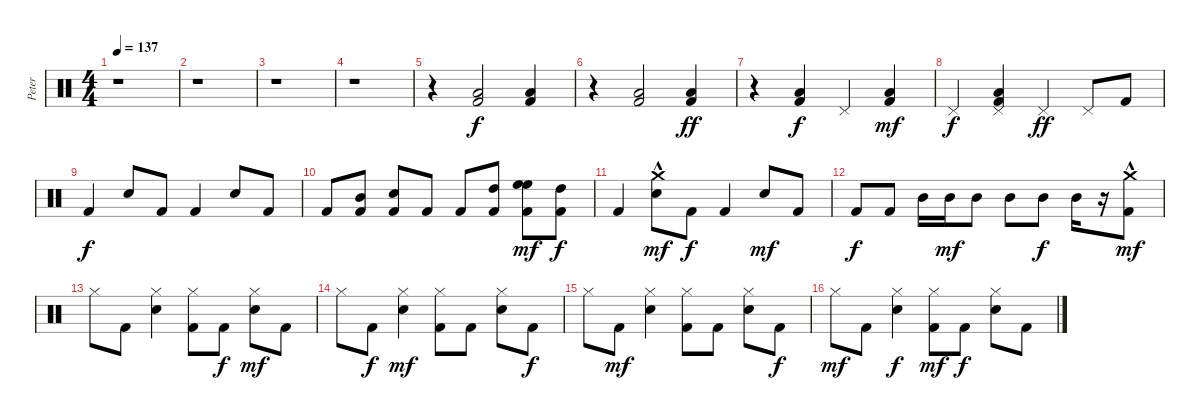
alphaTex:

\track ("Peter" "Peter") {instrument percussion}
\staff {score}
\articulation defaults
\ts (4 4)
\tempo 137
\clef neutral
\ks c
r.1{dy f} |
r.1 |
r.1 |
r.1 |
r.4 ("Low Floor Tom (hit)" "Kick (hit) 2").2 ("Low Floor Tom (hit)" "Kick (hit) 2").4 |
r.4 ("Low Floor Tom (hit)" "Kick (hit) 2").2 ("Low Floor Tom (hit)" "Kick (hit) 2").4{dy ff} |
r.4 ("Low Floor Tom (hit)" "Kick (hit) 2").4{dy f} "Pedal Hi-Hat (hit)".4 ("Low Floor Tom (hit)" "Kick (hit) 2").4{dy mf} |
"Pedal Hi-Hat (hit)".4{dy f} ("Pedal Hi-Hat (hit)" "Low Floor Tom (hit)" "Kick (hit) 2").4 "Pedal Hi-Hat (hit)".4{dy ff} "Pedal Hi-Hat (hit)".8 "Kick (hit) 2".8 |
"Kick (hit) 2".4{dy f} "Electric Snare (hit)".8 "Kick (hit) 2".8 "Kick (hit) 2".4 "Electric Snare (hit)".8 "Kick (hit) 2".8 |
"Kick (hit) 2".8 ("Mid Tom (hit)" "Kick (hit) 2").8 ("Electric Snare (hit)" "Kick (hit) 2").8 "Kick (hit) 2".8 "Kick (hit) 2".8 ("High Tom (hit)" "Kick (hit) 2").8 ("High Floor Tom (hit)" "High Floor Tom (hit)" "Kick (hit) 2").8{dy mf} ("High Tom (hit)" "Kick (hit) 2").8{dy f} |
"Kick (hit) 2".4 ("Electric Snare (hit)" "Crash medium (hit)"{hac}).8{dy mf} "Kick (hit) 2".8{dy f} "Kick (hit) 2".4 "Electric Snare (hit)".8{dy mf} "Kick (hit) 2".8 |
"Kick (hit) 2".8{dy f} "Kick (hit) 2".8 "Mid Tom (hit)".16 "Mid Tom (hit)".16{dy mf} "Mid Tom (hit)".8 "Mid Tom (hit)".8 "Mid Tom (hit)".8{dy f} "Mid Tom (hit)".16 r.16 ("Kick (hit) 2"{hac} "Crash medium (hit)").8{dy mf} |
"Hi-Hat (closed)".8 "Kick (hit) 2".8 ("Hi-Hat (closed)" "Electric Snare (hit)").4 ("Kick (hit) 2" "Hi-Hat (closed)").8 "Kick (hit) 2".8{dy f} ("Electric Snare (hit)" "Hi-Hat (closed)").8{dy mf} "Kick (hit) 2".8 |
"Hi-Hat (closed)".8 "Kick (hit) 2".8{dy f} ("Electric Snare (hit)" "Hi-Hat (closed)").4{dy mf} ("Hi-Hat (closed)" "Kick (hit) 2").8 "Kick (hit) 2".8 ("Electric Snare (hit)" "Hi-Hat (closed)").8 "Kick (hit) 2".8{dy f} |
"Hi-Hat (closed)".8 "Kick (hit) 2".8{dy mf} ("Electric Snare (hit)" "Hi-Hat (closed)").4 ("Kick (hit) 2" "Hi-Hat (closed)").8 "Kick (hit) 2".8 ("Electric Snare (hit)" "Hi-Hat (closed)").8 "Kick (hit) 2".8{dy f} |
"Hi-Hat (closed)".8{dy mf} "Kick (hit) 2".8 ("Hi-Hat (closed)" "Electric Snare (hit)").4{dy f} ("Kick (hit) 2" "Hi-Hat (closed)").8{dy mf} "Kick (hit) 2".8{dy f} ("Hi-Hat (closed)" "Electric Snare (hit)").8 "Kick (hit) 2".8
